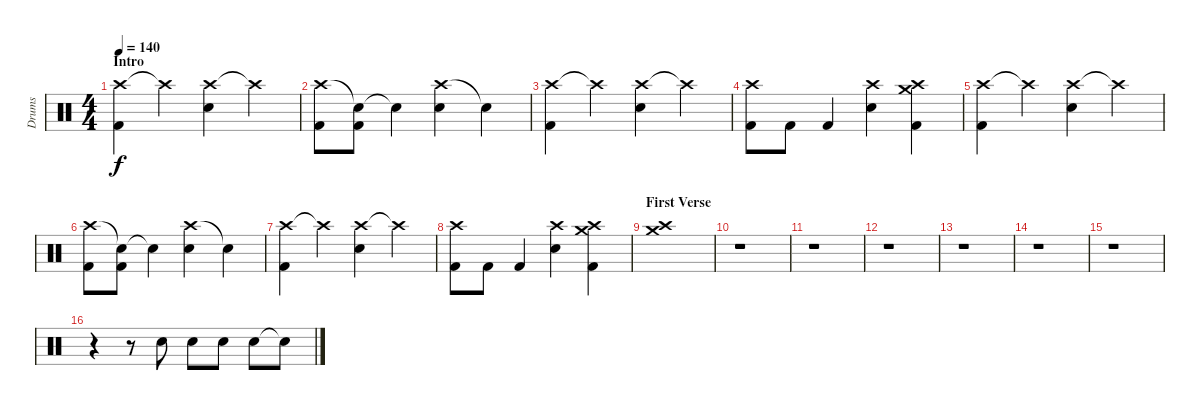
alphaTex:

\track ("Drums" "Drums") {instrument percussion}
\staff {score}
\articulation defaults
\ts (4 4)
\section ("" "Intro")
\tempo 140
\clef neutral
\ks c
("Crash high (hit)" "Kick (hit) 2").4{dy f} "Crash high (hit)"{t}.4 ("Crash high (hit)" "Electric Snare (hit)").4 "Crash high (hit)"{t}.4 |
("Crash high (hit)" "Kick (hit) 2").8 ("Snare (hit)"{t} "Kick (hit) 2").8 "Snare (hit)"{t}.4 ("Crash high (hit)" "Electric Snare (hit)").4 "Snare (hit)"{t}.4 |
("Crash high (hit)" "Kick (hit) 2").4 "Crash high (hit)"{t}.4 ("Crash high (hit)" "Electric Snare (hit)").4 "Crash high (hit)"{t}.4 |
("Crash high (hit)" "Kick (hit) 2").8 "Kick (hit) 2".8 "Kick (hit) 2".4 ("Crash high (hit)" "Electric Snare (hit)").4 ("Crash medium (hit)" "Crash high (hit)" "Kick (hit) 2").4 |
("Crash high (hit)" "Kick (hit) 2").4 "Crash high (hit)"{t}.4 ("Crash high (hit)" "Electric Snare (hit)").4 "Crash high (hit)"{t}.4 |
("Crash high (hit)" "Kick (hit) 2").8 ("Snare (hit)"{t} "Kick (hit) 2").8 "Snare (hit)"{t}.4 ("Crash high (hit)" "Electric Snare (hit)").4 "Snare (hit)"{t}.4 |
("Crash high (hit)" "Kick (hit) 2").4 "Crash high (hit)"{t}.4 ("Crash high (hit)" "Electric Snare (hit)").4 "Crash high (hit)"{t}.4 |
("Crash high (hit)" "Kick (hit) 2").8 "Kick (hit) 2".8 "Kick (hit) 2".4 ("Crash high (hit)" "Electric Snare (hit)").4 ("Crash medium (hit)" "Crash high (hit)" "Kick (hit) 2").4 |
\section ("" "First Verse")
("Crash medium (hit)" "Crash high (hit)").1 |
r.1 |
r.1 |
r.1 |
r.1 |
r.1 |
r.1 |
r.4 r.8 "Electric Snare (hit)".8 "Electric Snare (hit)".8 "Electric Snare (hit)".8 "Electric Snare (hit)".8 "Snare (hit)"{t}.8
